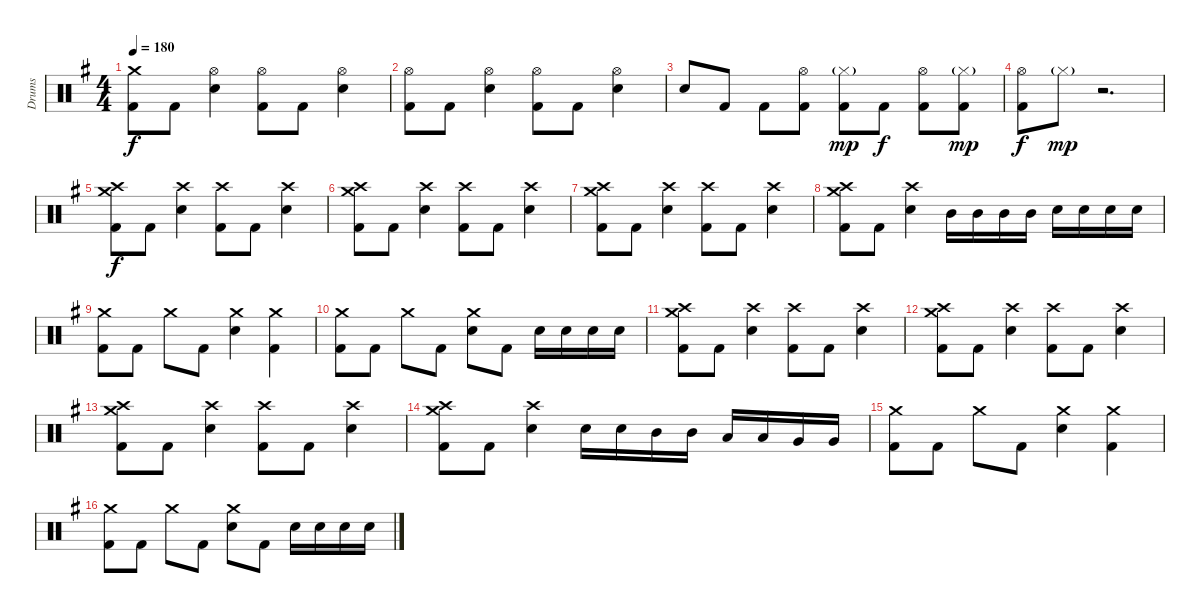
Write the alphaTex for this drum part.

\track ("Drums" "Drums") {instrument percussion}
\staff {score}
\articulation defaults
\ts (4 4)
\tempo 180
\clef neutral
\ks g
("Crash medium (hit)" "Kick (hit) 2").8{dy f} "Kick (hit) 2".8 ("Hi-Hat (open)" "Electric Snare (hit)").4 ("Hi-Hat (open)" "Kick (hit) 2").8 "Kick (hit) 2".8 ("Hi-Hat (open)" "Electric Snare (hit)").4 |
("Hi-Hat (open)" "Kick (hit) 2").8 "Kick (hit) 2".8 ("Hi-Hat (open)" "Electric Snare (hit)").4 ("Hi-Hat (open)" "Kick (hit) 2").8 "Kick (hit) 2".8 ("Hi-Hat (open)" "Electric Snare (hit)").4 |
"Electric Snare (hit)".8 "Kick (hit) 2".8 "Kick (hit) 2".8 ("Hi-Hat (open)" "Kick (hit) 2").8 ("Hi-Hat (closed)"{g} "Kick (hit) 2").8{dy mp} "Kick (hit) 2".8{dy f} ("Hi-Hat (open)" "Kick (hit) 2").8 ("Hi-Hat (closed)"{g} "Kick (hit) 2").8{dy mp} |
("Hi-Hat (open)" "Kick (hit) 2").8{dy f} "Hi-Hat (closed)"{g}.8{dy mp} r.2{d} |
("Crash medium (hit)" "Crash high (hit)" "Kick (hit) 2").8{dy f} "Kick (hit) 2".8 ("Crash high (hit)" "Electric Snare (hit)").4 ("Crash high (hit)" "Kick (hit) 2").8 "Kick (hit) 2".8 ("Crash high (hit)" "Electric Snare (hit)").4 |
("Crash medium (hit)" "Crash high (hit)" "Kick (hit) 2").8 "Kick (hit) 2".8 ("Crash high (hit)" "Electric Snare (hit)").4 ("Crash high (hit)" "Kick (hit) 2").8 "Kick (hit) 2".8 ("Crash high (hit)" "Electric Snare (hit)").4 |
("Crash medium (hit)" "Crash high (hit)" "Kick (hit) 2").8 "Kick (hit) 2".8 ("Crash high (hit)" "Electric Snare (hit)").4 ("Crash high (hit)" "Kick (hit) 2").8 "Kick (hit) 2".8 ("Crash high (hit)" "Electric Snare (hit)").4 |
("Crash medium (hit)" "Crash high (hit)" "Kick (hit) 2").8 "Kick (hit) 2".8 ("Crash high (hit)" "Electric Snare (hit)").4 "Mid Tom (hit)".16 "Mid Tom (hit)".16 "Mid Tom (hit)".16 "Mid Tom (hit)".16 "Electric Snare (hit)".16 "Electric Snare (hit)".16 "Electric Snare (hit)".16 "Electric Snare (hit)".16 |
("Crash medium (hit)" "Kick (hit) 2").8 "Kick (hit) 2".8 "Crash medium (hit)".8 "Kick (hit) 2".8 ("Crash medium (hit)" "Electric Snare (hit)").4 ("Crash medium (hit)" "Kick (hit) 2").4 |
("Crash medium (hit)" "Kick (hit) 2").8 "Kick (hit) 2".8 "Crash medium (hit)".8 "Kick (hit) 2".8 ("Crash medium (hit)" "Electric Snare (hit)").8 "Kick (hit) 2".8 "Electric Snare (hit)".16 "Electric Snare (hit)".16 "Electric Snare (hit)".16 "Electric Snare (hit)".16 |
("Crash medium (hit)" "Crash high (hit)" "Kick (hit) 2").8 "Kick (hit) 2".8 ("Crash high (hit)" "Electric Snare (hit)").4 ("Crash high (hit)" "Kick (hit) 2").8 "Kick (hit) 2".8 ("Crash high (hit)" "Electric Snare (hit)").4 |
("Crash medium (hit)" "Crash high (hit)" "Kick (hit) 2").8 "Kick (hit) 2".8 ("Crash high (hit)" "Electric Snare (hit)").4 ("Crash high (hit)" "Kick (hit) 2").8 "Kick (hit) 2".8 ("Crash high (hit)" "Electric Snare (hit)").4 |
("Crash medium (hit)" "Crash high (hit)" "Kick (hit) 2").8 "Kick (hit) 2".8 ("Crash high (hit)" "Electric Snare (hit)").4 ("Crash high (hit)" "Kick (hit) 2").8 "Kick (hit) 2".8 ("Crash high (hit)" "Electric Snare (hit)").4 |
("Crash medium (hit)" "Crash high (hit)" "Kick (hit) 2").8 "Kick (hit) 2".8 ("Crash high (hit)" "Electric Snare (hit)").4 "Electric Snare (hit)".16 "Electric Snare (hit)".16 "Mid Tom (hit)".16 "Mid Tom (hit)".16 "Low Tom (hit)".16 "Low Tom (hit)".16 "Very Low Tom (hit)".16 "Very Low Tom (hit)".16 |
("Crash medium (hit)" "Kick (hit) 2").8 "Kick (hit) 2".8 "Crash medium (hit)".8 "Kick (hit) 2".8 ("Crash medium (hit)" "Electric Snare (hit)").4 ("Crash medium (hit)" "Kick (hit) 2").4 |
("Crash medium (hit)" "Kick (hit) 2").8 "Kick (hit) 2".8 "Crash medium (hit)".8 "Kick (hit) 2".8 ("Crash medium (hit)" "Electric Snare (hit)").8 "Kick (hit) 2".8 "Electric Snare (hit)".16 "Electric Snare (hit)".16 "Electric Snare (hit)".16 "Electric Snare (hit)".16
